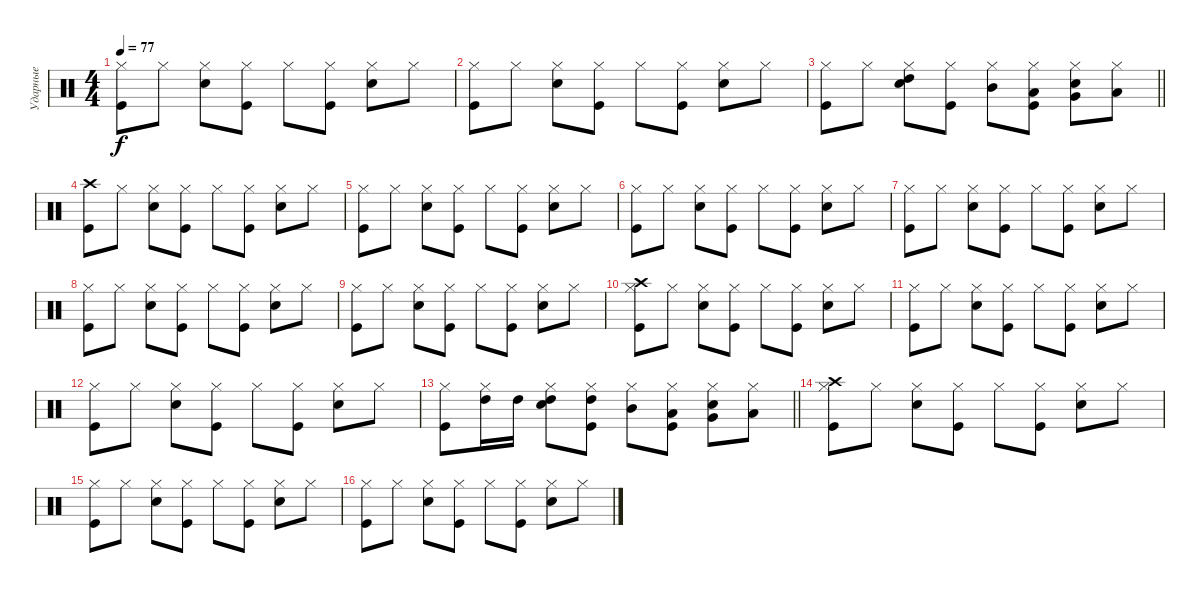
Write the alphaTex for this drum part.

\track ("Ударные" "Ударные") {solo instrument percussion}
\staff {score}
\articulation defaults
\ts (4 4)
\tempo 77
\clef neutral
\ks c
("Kick (hit)" "Hi-Hat (closed)").8{dy f} "Hi-Hat (closed)".8 ("Snare (hit) 2" "Hi-Hat (closed)").8 ("Kick (hit)" "Hi-Hat (closed)").8 "Hi-Hat (closed)".8 ("Kick (hit)" "Hi-Hat (closed)").8 ("Snare (hit) 2" "Hi-Hat (closed)").8 "Hi-Hat (closed)".8 |
("Kick (hit)" "Hi-Hat (closed)").8 "Hi-Hat (closed)".8 ("Snare (hit) 2" "Hi-Hat (closed)").8 ("Kick (hit)" "Hi-Hat (closed)").8 "Hi-Hat (closed)".8 ("Kick (hit)" "Hi-Hat (closed)").8 ("Snare (hit) 2" "Hi-Hat (closed)").8 "Hi-Hat (closed)".8 |
\barLineRight lightlight
("Kick (hit)" "Hi-Hat (closed)").8 "Hi-Hat (closed)".8 ("Snare (hit) 2" "High Tom (hit)" "Hi-Hat (closed)").8 ("Kick (hit)" "Hi-Hat (closed)").8 ("Mid Tom (hit)" "Hi-Hat (closed)").8 ("Kick (hit)" "Low Tom (hit)" "Hi-Hat (closed)").8 ("Snare (hit) 2" "Very Low Tom (hit)" "Hi-Hat (closed)").8 ("Low Floor Tom (hit)" "Hi-Hat (closed)").8 |
("Kick (hit)" "Crash high (hit)").8 "Hi-Hat (closed)".8 ("Snare (hit) 2" "Hi-Hat (closed)").8 ("Kick (hit)" "Hi-Hat (closed)").8 "Hi-Hat (closed)".8 ("Kick (hit)" "Hi-Hat (closed)").8 ("Snare (hit) 2" "Hi-Hat (closed)").8 "Hi-Hat (closed)".8 |
("Kick (hit)" "Hi-Hat (closed)").8 "Hi-Hat (closed)".8 ("Snare (hit) 2" "Hi-Hat (closed)").8 ("Kick (hit)" "Hi-Hat (closed)").8 "Hi-Hat (closed)".8 ("Kick (hit)" "Hi-Hat (closed)").8 ("Snare (hit) 2" "Hi-Hat (closed)").8 "Hi-Hat (closed)".8 |
("Kick (hit)" "Hi-Hat (closed)").8 "Hi-Hat (closed)".8 ("Snare (hit) 2" "Hi-Hat (closed)").8 ("Kick (hit)" "Hi-Hat (closed)").8 "Hi-Hat (closed)".8 ("Kick (hit)" "Hi-Hat (closed)").8 ("Snare (hit) 2" "Hi-Hat (closed)").8 "Hi-Hat (closed)".8 |
("Kick (hit)" "Hi-Hat (closed)").8 "Hi-Hat (closed)".8 ("Snare (hit) 2" "Hi-Hat (closed)").8 ("Kick (hit)" "Hi-Hat (closed)").8 "Hi-Hat (closed)".8 ("Kick (hit)" "Hi-Hat (closed)").8 ("Snare (hit) 2" "Hi-Hat (closed)").8 "Hi-Hat (closed)".8 |
("Kick (hit)" "Hi-Hat (closed)").8 "Hi-Hat (closed)".8 ("Snare (hit) 2" "Hi-Hat (closed)").8 ("Kick (hit)" "Hi-Hat (closed)").8 "Hi-Hat (closed)".8 ("Kick (hit)" "Hi-Hat (closed)").8 ("Snare (hit) 2" "Hi-Hat (closed)").8 "Hi-Hat (closed)".8 |
("Kick (hit)" "Hi-Hat (closed)").8 "Hi-Hat (closed)".8 ("Snare (hit) 2" "Hi-Hat (closed)").8 ("Kick (hit)" "Hi-Hat (closed)").8 "Hi-Hat (closed)".8 ("Kick (hit)" "Hi-Hat (closed)").8 ("Snare (hit) 2" "Hi-Hat (closed)").8 "Hi-Hat (closed)".8 |
("Kick (hit)" "Crash high (hit)" "Hi-Hat (closed)").8 "Hi-Hat (closed)".8 ("Snare (hit) 2" "Hi-Hat (closed)").8 ("Kick (hit)" "Hi-Hat (closed)").8 "Hi-Hat (closed)".8 ("Kick (hit)" "Hi-Hat (closed)").8 ("Snare (hit) 2" "Hi-Hat (closed)").8 "Hi-Hat (closed)".8 |
("Kick (hit)" "Hi-Hat (closed)").8 "Hi-Hat (closed)".8 ("Snare (hit) 2" "Hi-Hat (closed)").8 ("Kick (hit)" "Hi-Hat (closed)").8 "Hi-Hat (closed)".8 ("Kick (hit)" "Hi-Hat (closed)").8 ("Snare (hit) 2" "Hi-Hat (closed)").8 "Hi-Hat (closed)".8 |
("Kick (hit)" "Hi-Hat (closed)").8 "Hi-Hat (closed)".8 ("Snare (hit) 2" "Hi-Hat (closed)").8 ("Kick (hit)" "Hi-Hat (closed)").8 "Hi-Hat (closed)".8 ("Kick (hit)" "Hi-Hat (closed)").8 ("Snare (hit) 2" "Hi-Hat (closed)").8 "Hi-Hat (closed)".8 |
\barLineRight lightlight
("Kick (hit)" "Hi-Hat (closed)").8 ("High Tom (hit)" "Hi-Hat (closed)").16 "High Tom (hit)".16 ("Snare (hit) 2" "High Tom (hit)" "Hi-Hat (closed)").8 ("Kick (hit)" "High Tom (hit)" "Hi-Hat (closed)").8 ("Mid Tom (hit)" "Hi-Hat (closed)").8 ("Kick (hit)" "Low Tom (hit)" "Hi-Hat (closed)").8 ("Snare (hit) 2" "Very Low Tom (hit)" "Hi-Hat (closed)").8 ("Low Floor Tom (hit)" "Hi-Hat (closed)").8 |
("Kick (hit)" "Crash high (hit)" "Hi-Hat (closed)").8 "Hi-Hat (closed)".8 ("Snare (hit) 2" "Hi-Hat (closed)").8 ("Kick (hit)" "Hi-Hat (closed)").8 "Hi-Hat (closed)".8 ("Kick (hit)" "Hi-Hat (closed)").8 ("Snare (hit) 2" "Hi-Hat (closed)").8 "Hi-Hat (closed)".8 |
("Kick (hit)" "Hi-Hat (closed)").8 "Hi-Hat (closed)".8 ("Snare (hit) 2" "Hi-Hat (closed)").8 ("Kick (hit)" "Hi-Hat (closed)").8 "Hi-Hat (closed)".8 ("Kick (hit)" "Hi-Hat (closed)").8 ("Snare (hit) 2" "Hi-Hat (closed)").8 "Hi-Hat (closed)".8 |
("Kick (hit)" "Hi-Hat (closed)").8 "Hi-Hat (closed)".8 ("Snare (hit) 2" "Hi-Hat (closed)").8 ("Kick (hit)" "Hi-Hat (closed)").8 "Hi-Hat (closed)".8 ("Kick (hit)" "Hi-Hat (closed)").8 ("Snare (hit) 2" "Hi-Hat (closed)").8 "Hi-Hat (closed)".8
